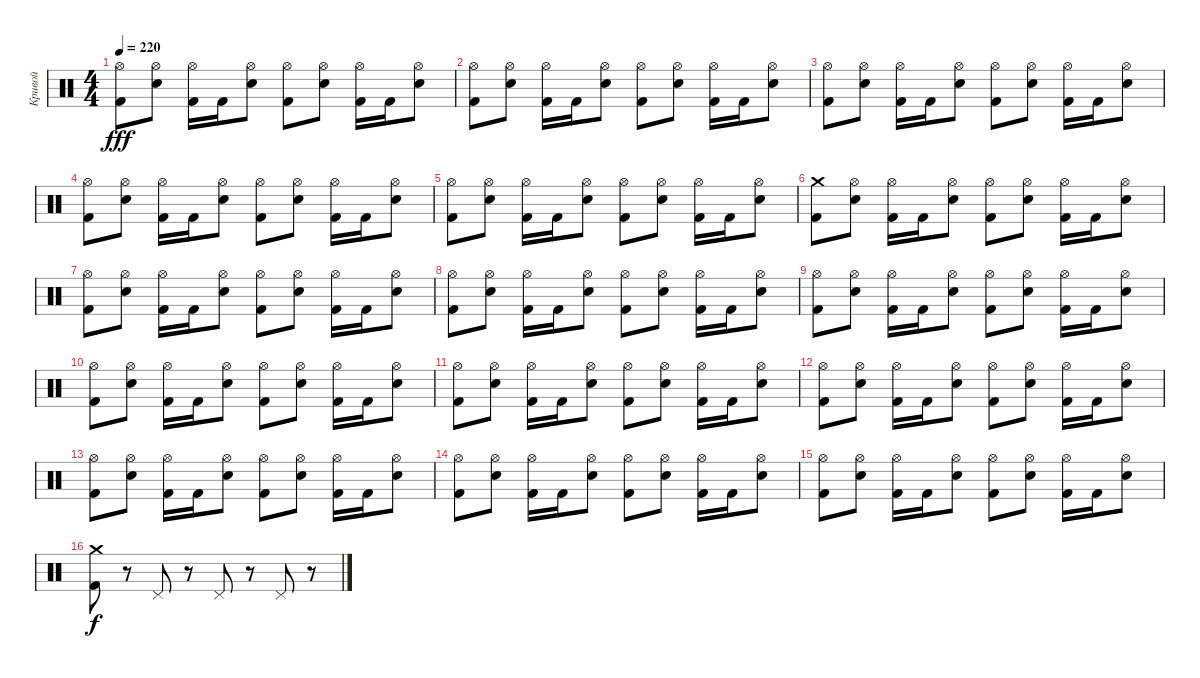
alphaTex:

\track ("Кривой" "Кривой") {instrument percussion}
\staff {score}
\articulation defaults
\ts (4 4)
\tempo 220
\clef neutral
\ks c
("Hi-Hat (open)" "Kick (hit) 2").8{dy fff} ("Hi-Hat (open)" "Electric Snare (hit)").8 ("Hi-Hat (open)" "Kick (hit) 2").16 "Kick (hit) 2".16 ("Hi-Hat (open)" "Electric Snare (hit)").8 ("Hi-Hat (open)" "Kick (hit) 2").8 ("Hi-Hat (open)" "Electric Snare (hit)").8 ("Hi-Hat (open)" "Kick (hit) 2").16 "Kick (hit) 2".16 ("Hi-Hat (open)" "Electric Snare (hit)").8 |
("Hi-Hat (open)" "Kick (hit) 2").8 ("Hi-Hat (open)" "Electric Snare (hit)").8 ("Hi-Hat (open)" "Kick (hit) 2").16 "Kick (hit) 2".16 ("Hi-Hat (open)" "Electric Snare (hit)").8 ("Hi-Hat (open)" "Kick (hit) 2").8 ("Hi-Hat (open)" "Electric Snare (hit)").8 ("Hi-Hat (open)" "Kick (hit) 2").16 "Kick (hit) 2".16 ("Hi-Hat (open)" "Electric Snare (hit)").8 |
("Hi-Hat (open)" "Kick (hit) 2").8 ("Hi-Hat (open)" "Electric Snare (hit)").8 ("Hi-Hat (open)" "Kick (hit) 2").16 "Kick (hit) 2".16 ("Hi-Hat (open)" "Electric Snare (hit)").8 ("Hi-Hat (open)" "Kick (hit) 2").8 ("Hi-Hat (open)" "Electric Snare (hit)").8 ("Hi-Hat (open)" "Kick (hit) 2").16 "Kick (hit) 2".16 ("Hi-Hat (open)" "Electric Snare (hit)").8 |
("Hi-Hat (open)" "Kick (hit) 2").8 ("Hi-Hat (open)" "Electric Snare (hit)").8 ("Hi-Hat (open)" "Kick (hit) 2").16 "Kick (hit) 2".16 ("Hi-Hat (open)" "Electric Snare (hit)").8 ("Hi-Hat (open)" "Kick (hit) 2").8 ("Hi-Hat (open)" "Electric Snare (hit)").8 ("Hi-Hat (open)" "Kick (hit) 2").16 "Kick (hit) 2".16 ("Hi-Hat (open)" "Electric Snare (hit)").8 |
("Hi-Hat (open)" "Kick (hit) 2").8 ("Hi-Hat (open)" "Electric Snare (hit)").8 ("Hi-Hat (open)" "Kick (hit) 2").16 "Kick (hit) 2".16 ("Hi-Hat (open)" "Electric Snare (hit)").8 ("Hi-Hat (open)" "Kick (hit) 2").8 ("Hi-Hat (open)" "Electric Snare (hit)").8 ("Hi-Hat (open)" "Kick (hit) 2").16 "Kick (hit) 2".16 ("Hi-Hat (open)" "Electric Snare (hit)").8 |
("Crash medium (hit)" "Kick (hit) 2").8 ("Hi-Hat (open)" "Electric Snare (hit)").8 ("Hi-Hat (open)" "Kick (hit) 2").16 "Kick (hit) 2".16 ("Hi-Hat (open)" "Electric Snare (hit)").8 ("Hi-Hat (open)" "Kick (hit) 2").8 ("Hi-Hat (open)" "Electric Snare (hit)").8 ("Hi-Hat (open)" "Kick (hit) 2").16 "Kick (hit) 2".16 ("Hi-Hat (open)" "Electric Snare (hit)").8 |
("Hi-Hat (open)" "Kick (hit) 2").8 ("Hi-Hat (open)" "Electric Snare (hit)").8 ("Hi-Hat (open)" "Kick (hit) 2").16 "Kick (hit) 2".16 ("Hi-Hat (open)" "Electric Snare (hit)").8 ("Hi-Hat (open)" "Kick (hit) 2").8 ("Hi-Hat (open)" "Electric Snare (hit)").8 ("Hi-Hat (open)" "Kick (hit) 2").16 "Kick (hit) 2".16 ("Hi-Hat (open)" "Electric Snare (hit)").8 |
("Hi-Hat (open)" "Kick (hit) 2").8 ("Hi-Hat (open)" "Electric Snare (hit)").8 ("Hi-Hat (open)" "Kick (hit) 2").16 "Kick (hit) 2".16 ("Hi-Hat (open)" "Electric Snare (hit)").8 ("Hi-Hat (open)" "Kick (hit) 2").8 ("Hi-Hat (open)" "Electric Snare (hit)").8 ("Hi-Hat (open)" "Kick (hit) 2").16 "Kick (hit) 2".16 ("Hi-Hat (open)" "Electric Snare (hit)").8 |
("Hi-Hat (open)" "Kick (hit) 2").8 ("Hi-Hat (open)" "Electric Snare (hit)").8 ("Hi-Hat (open)" "Kick (hit) 2").16 "Kick (hit) 2".16 ("Hi-Hat (open)" "Electric Snare (hit)").8 ("Hi-Hat (open)" "Kick (hit) 2").8 ("Hi-Hat (open)" "Electric Snare (hit)").8 ("Hi-Hat (open)" "Kick (hit) 2").16 "Kick (hit) 2".16 ("Hi-Hat (open)" "Electric Snare (hit)").8 |
("Hi-Hat (open)" "Kick (hit) 2").8 ("Hi-Hat (open)" "Electric Snare (hit)").8 ("Hi-Hat (open)" "Kick (hit) 2").16 "Kick (hit) 2".16 ("Hi-Hat (open)" "Electric Snare (hit)").8 ("Hi-Hat (open)" "Kick (hit) 2").8 ("Hi-Hat (open)" "Electric Snare (hit)").8 ("Hi-Hat (open)" "Kick (hit) 2").16 "Kick (hit) 2".16 ("Hi-Hat (open)" "Electric Snare (hit)").8 |
("Hi-Hat (open)" "Kick (hit) 2").8 ("Hi-Hat (open)" "Electric Snare (hit)").8 ("Hi-Hat (open)" "Kick (hit) 2").16 "Kick (hit) 2".16 ("Hi-Hat (open)" "Electric Snare (hit)").8 ("Hi-Hat (open)" "Kick (hit) 2").8 ("Hi-Hat (open)" "Electric Snare (hit)").8 ("Hi-Hat (open)" "Kick (hit) 2").16 "Kick (hit) 2".16 ("Hi-Hat (open)" "Electric Snare (hit)").8 |
("Hi-Hat (open)" "Kick (hit) 2").8 ("Hi-Hat (open)" "Electric Snare (hit)").8 ("Hi-Hat (open)" "Kick (hit) 2").16 "Kick (hit) 2".16 ("Hi-Hat (open)" "Electric Snare (hit)").8 ("Hi-Hat (open)" "Kick (hit) 2").8 ("Hi-Hat (open)" "Electric Snare (hit)").8 ("Hi-Hat (open)" "Kick (hit) 2").16 "Kick (hit) 2".16 ("Hi-Hat (open)" "Electric Snare (hit)").8 |
("Hi-Hat (open)" "Kick (hit) 2").8 ("Hi-Hat (open)" "Electric Snare (hit)").8 ("Hi-Hat (open)" "Kick (hit) 2").16 "Kick (hit) 2".16 ("Hi-Hat (open)" "Electric Snare (hit)").8 ("Hi-Hat (open)" "Kick (hit) 2").8 ("Hi-Hat (open)" "Electric Snare (hit)").8 ("Hi-Hat (open)" "Kick (hit) 2").16 "Kick (hit) 2".16 ("Hi-Hat (open)" "Electric Snare (hit)").8 |
("Hi-Hat (open)" "Kick (hit) 2").8 ("Hi-Hat (open)" "Electric Snare (hit)").8 ("Hi-Hat (open)" "Kick (hit) 2").16 "Kick (hit) 2".16 ("Hi-Hat (open)" "Electric Snare (hit)").8 ("Hi-Hat (open)" "Kick (hit) 2").8 ("Hi-Hat (open)" "Electric Snare (hit)").8 ("Hi-Hat (open)" "Kick (hit) 2").16 "Kick (hit) 2".16 ("Hi-Hat (open)" "Electric Snare (hit)").8 |
("Hi-Hat (open)" "Kick (hit) 2").8 ("Hi-Hat (open)" "Electric Snare (hit)").8 ("Hi-Hat (open)" "Kick (hit) 2").16 "Kick (hit) 2".16 ("Hi-Hat (open)" "Electric Snare (hit)").8 ("Hi-Hat (open)" "Kick (hit) 2").8 ("Hi-Hat (open)" "Electric Snare (hit)").8 ("Hi-Hat (open)" "Kick (hit) 2").16 "Kick (hit) 2".16 ("Hi-Hat (open)" "Electric Snare (hit)").8 |
("Crash medium (hit)" "Kick (hit) 2").8{dy f} r.8 "Pedal Hi-Hat (hit)".8 r.8 "Pedal Hi-Hat (hit)".8 r.8 "Pedal Hi-Hat (hit)".8 r.8
